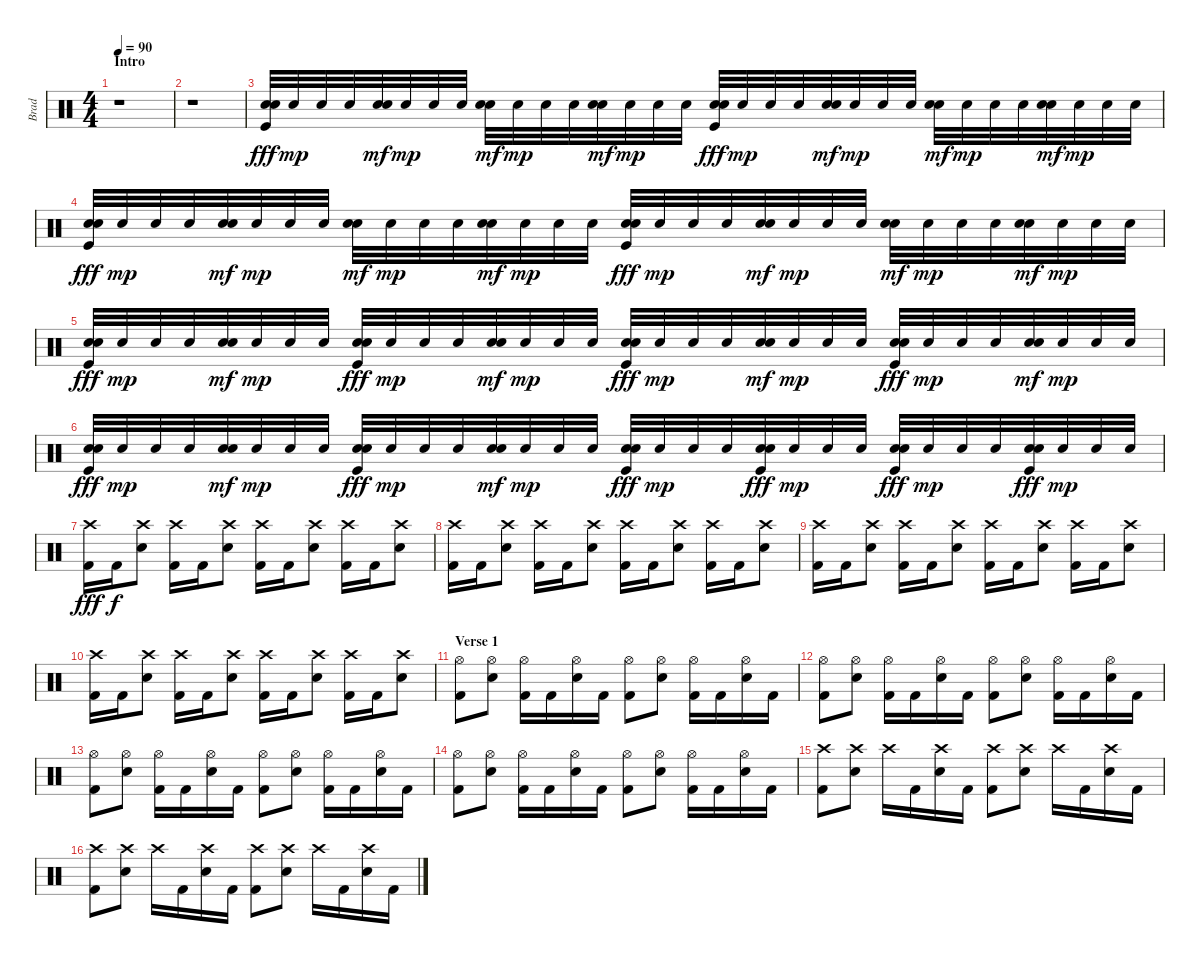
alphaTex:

\track ("Brad" "Brad") {instrument percussion}
\staff {score}
\articulation defaults
\ts (4 4)
\section ("" "Intro")
\tempo 90
\clef neutral
\ks c
r.1{dy fff} |
r.1 |
("Electric Snare (hit)" "Electric Snare (hit)" "Kick (hit)").32 "Electric Snare (hit)".32{dy mp} "Electric Snare (hit)".32 "Electric Snare (hit)".32 ("Electric Snare (hit)" "Electric Snare (hit)").32{dy mf} "Electric Snare (hit)".32{dy mp} "Electric Snare (hit)".32 "Electric Snare (hit)".32 ("Electric Snare (hit)" "Electric Snare (hit)").32{dy mf} "Electric Snare (hit)".32{dy mp} "Electric Snare (hit)".32 "Electric Snare (hit)".32 ("Electric Snare (hit)" "Electric Snare (hit)").32{dy mf} "Electric Snare (hit)".32{dy mp} "Electric Snare (hit)".32 "Electric Snare (hit)".32 ("Electric Snare (hit)" "Electric Snare (hit)" "Kick (hit)").32{dy fff} "Electric Snare (hit)".32{dy mp} "Electric Snare (hit)".32 "Electric Snare (hit)".32 ("Electric Snare (hit)" "Electric Snare (hit)").32{dy mf} "Electric Snare (hit)".32{dy mp} "Electric Snare (hit)".32 "Electric Snare (hit)".32 ("Electric Snare (hit)" "Electric Snare (hit)").32{dy mf} "Electric Snare (hit)".32{dy mp} "Electric Snare (hit)".32 "Electric Snare (hit)".32 ("Electric Snare (hit)" "Electric Snare (hit)").32{dy mf} "Electric Snare (hit)".32{dy mp} "Electric Snare (hit)".32 "Electric Snare (hit)".32 |
("Electric Snare (hit)" "Electric Snare (hit)" "Kick (hit)").32{dy fff} "Electric Snare (hit)".32{dy mp} "Electric Snare (hit)".32 "Electric Snare (hit)".32 ("Electric Snare (hit)" "Electric Snare (hit)").32{dy mf} "Electric Snare (hit)".32{dy mp} "Electric Snare (hit)".32 "Electric Snare (hit)".32 ("Electric Snare (hit)" "Electric Snare (hit)").32{dy mf} "Electric Snare (hit)".32{dy mp} "Electric Snare (hit)".32 "Electric Snare (hit)".32 ("Electric Snare (hit)" "Electric Snare (hit)").32{dy mf} "Electric Snare (hit)".32{dy mp} "Electric Snare (hit)".32 "Electric Snare (hit)".32 ("Electric Snare (hit)" "Electric Snare (hit)" "Kick (hit)").32{dy fff} "Electric Snare (hit)".32{dy mp} "Electric Snare (hit)".32 "Electric Snare (hit)".32 ("Electric Snare (hit)" "Electric Snare (hit)").32{dy mf} "Electric Snare (hit)".32{dy mp} "Electric Snare (hit)".32 "Electric Snare (hit)".32 ("Electric Snare (hit)" "Electric Snare (hit)").32{dy mf} "Electric Snare (hit)".32{dy mp} "Electric Snare (hit)".32 "Electric Snare (hit)".32 ("Electric Snare (hit)" "Electric Snare (hit)").32{dy mf} "Electric Snare (hit)".32{dy mp} "Electric Snare (hit)".32 "Electric Snare (hit)".32 |
("Electric Snare (hit)" "Electric Snare (hit)" "Kick (hit)").32{dy fff} "Electric Snare (hit)".32{dy mp} "Electric Snare (hit)".32 "Electric Snare (hit)".32 ("Electric Snare (hit)" "Electric Snare (hit)").32{dy mf} "Electric Snare (hit)".32{dy mp} "Electric Snare (hit)".32 "Electric Snare (hit)".32 ("Electric Snare (hit)" "Electric Snare (hit)" "Kick (hit)").32{dy fff} "Electric Snare (hit)".32{dy mp} "Electric Snare (hit)".32 "Electric Snare (hit)".32 ("Electric Snare (hit)" "Electric Snare (hit)").32{dy mf} "Electric Snare (hit)".32{dy mp} "Electric Snare (hit)".32 "Electric Snare (hit)".32 ("Electric Snare (hit)" "Electric Snare (hit)" "Kick (hit)").32{dy fff} "Electric Snare (hit)".32{dy mp} "Electric Snare (hit)".32 "Electric Snare (hit)".32 ("Electric Snare (hit)" "Electric Snare (hit)").32{dy mf} "Electric Snare (hit)".32{dy mp} "Electric Snare (hit)".32 "Electric Snare (hit)".32 ("Electric Snare (hit)" "Electric Snare (hit)" "Kick (hit)").32{dy fff} "Electric Snare (hit)".32{dy mp} "Electric Snare (hit)".32 "Electric Snare (hit)".32 ("Electric Snare (hit)" "Electric Snare (hit)").32{dy mf} "Electric Snare (hit)".32{dy mp} "Electric Snare (hit)".32 "Electric Snare (hit)".32 |
("Electric Snare (hit)" "Electric Snare (hit)" "Kick (hit)").32{dy fff} "Electric Snare (hit)".32{dy mp} "Electric Snare (hit)".32 "Electric Snare (hit)".32 ("Electric Snare (hit)" "Electric Snare (hit)").32{dy mf} "Electric Snare (hit)".32{dy mp} "Electric Snare (hit)".32 "Electric Snare (hit)".32 ("Electric Snare (hit)" "Electric Snare (hit)" "Kick (hit)").32{dy fff} "Electric Snare (hit)".32{dy mp} "Electric Snare (hit)".32 "Electric Snare (hit)".32 ("Electric Snare (hit)" "Electric Snare (hit)").32{dy mf} "Electric Snare (hit)".32{dy mp} "Electric Snare (hit)".32 "Electric Snare (hit)".32 ("Electric Snare (hit)" "Electric Snare (hit)" "Kick (hit)").32{dy fff} "Electric Snare (hit)".32{dy mp} "Electric Snare (hit)".32 "Electric Snare (hit)".32 ("Electric Snare (hit)" "Electric Snare (hit)" "Kick (hit)").32{dy fff} "Electric Snare (hit)".32{dy mp} "Electric Snare (hit)".32 "Electric Snare (hit)".32 ("Electric Snare (hit)" "Electric Snare (hit)" "Kick (hit)").32{dy fff} "Electric Snare (hit)".32{dy mp} "Electric Snare (hit)".32 "Electric Snare (hit)".32 ("Electric Snare (hit)" "Electric Snare (hit)" "Kick (hit)").32{dy fff} "Electric Snare (hit)".32{dy mp} "Electric Snare (hit)".32 "Electric Snare (hit)".32 |
("Crash high (hit)" "Kick (hit) 2").16{dy fff} "Kick (hit) 2".16{dy f} ("Crash high (hit)" "Electric Snare (hit)").8 ("Crash high (hit)" "Kick (hit) 2").16 "Kick (hit) 2".16 ("Crash high (hit)" "Electric Snare (hit)").8 ("Crash high (hit)" "Kick (hit) 2").16 "Kick (hit) 2".16 ("Crash high (hit)" "Electric Snare (hit)").8 ("Crash high (hit)" "Kick (hit) 2").16 "Kick (hit) 2".16 ("Crash high (hit)" "Electric Snare (hit)").8 |
("Crash high (hit)" "Kick (hit) 2").16 "Kick (hit) 2".16 ("Crash high (hit)" "Electric Snare (hit)").8 ("Crash high (hit)" "Kick (hit) 2").16 "Kick (hit) 2".16 ("Crash high (hit)" "Electric Snare (hit)").8 ("Crash high (hit)" "Kick (hit) 2").16 "Kick (hit) 2".16 ("Crash high (hit)" "Electric Snare (hit)").8 ("Crash high (hit)" "Kick (hit) 2").16 "Kick (hit) 2".16 ("Crash high (hit)" "Electric Snare (hit)").8 |
("Crash high (hit)" "Kick (hit) 2").16 "Kick (hit) 2".16 ("Crash high (hit)" "Electric Snare (hit)").8 ("Crash high (hit)" "Kick (hit) 2").16 "Kick (hit) 2".16 ("Crash high (hit)" "Electric Snare (hit)").8 ("Crash high (hit)" "Kick (hit) 2").16 "Kick (hit) 2".16 ("Crash high (hit)" "Electric Snare (hit)").8 ("Crash high (hit)" "Kick (hit) 2").16 "Kick (hit) 2".16 ("Crash high (hit)" "Electric Snare (hit)").8 |
("Crash high (hit)" "Kick (hit) 2").16 "Kick (hit) 2".16 ("Crash high (hit)" "Electric Snare (hit)").8 ("Crash high (hit)" "Kick (hit) 2").16 "Kick (hit) 2".16 ("Crash high (hit)" "Electric Snare (hit)").8 ("Crash high (hit)" "Kick (hit) 2").16 "Kick (hit) 2".16 ("Crash high (hit)" "Electric Snare (hit)").8 ("Crash high (hit)" "Kick (hit) 2").16 "Kick (hit) 2".16 ("Crash high (hit)" "Electric Snare (hit)").8 |
\section ("" "Verse 1")
("Hi-Hat (open)" "Kick (hit) 2").8 ("Hi-Hat (open)" "Electric Snare (hit)").8 ("Hi-Hat (open)" "Kick (hit) 2").16 "Kick (hit) 2".16 ("Hi-Hat (open)" "Electric Snare (hit)").16 "Kick (hit) 2".16 ("Hi-Hat (open)" "Kick (hit) 2").8 ("Hi-Hat (open)" "Electric Snare (hit)").8 ("Hi-Hat (open)" "Kick (hit) 2").16 "Kick (hit) 2".16 ("Hi-Hat (open)" "Electric Snare (hit)").16 "Kick (hit) 2".16 |
("Hi-Hat (open)" "Kick (hit) 2").8 ("Hi-Hat (open)" "Electric Snare (hit)").8 ("Hi-Hat (open)" "Kick (hit) 2").16 "Kick (hit) 2".16 ("Hi-Hat (open)" "Electric Snare (hit)").16 "Kick (hit) 2".16 ("Hi-Hat (open)" "Kick (hit) 2").8 ("Hi-Hat (open)" "Electric Snare (hit)").8 ("Hi-Hat (open)" "Kick (hit) 2").16 "Kick (hit) 2".16 ("Hi-Hat (open)" "Electric Snare (hit)").16 "Kick (hit) 2".16 |
("Hi-Hat (open)" "Kick (hit) 2").8 ("Hi-Hat (open)" "Electric Snare (hit)").8 ("Hi-Hat (open)" "Kick (hit) 2").16 "Kick (hit) 2".16 ("Hi-Hat (open)" "Electric Snare (hit)").16 "Kick (hit) 2".16 ("Hi-Hat (open)" "Kick (hit) 2").8 ("Hi-Hat (open)" "Electric Snare (hit)").8 ("Hi-Hat (open)" "Kick (hit) 2").16 "Kick (hit) 2".16 ("Hi-Hat (open)" "Electric Snare (hit)").16 "Kick (hit) 2".16 |
("Hi-Hat (open)" "Kick (hit) 2").8 ("Hi-Hat (open)" "Electric Snare (hit)").8 ("Hi-Hat (open)" "Kick (hit) 2").16 "Kick (hit) 2".16 ("Hi-Hat (open)" "Electric Snare (hit)").16 "Kick (hit) 2".16 ("Hi-Hat (open)" "Kick (hit) 2").8 ("Hi-Hat (open)" "Electric Snare (hit)").8 ("Hi-Hat (open)" "Kick (hit) 2").16 "Kick (hit) 2".16 ("Hi-Hat (open)" "Electric Snare (hit)").16 "Kick (hit) 2".16 |
("Crash high (hit)" "Kick (hit) 2").8 ("Crash high (hit)" "Electric Snare (hit)").8 "Crash high (hit)".16 "Kick (hit) 2".16 ("Crash high (hit)" "Electric Snare (hit)").16 "Kick (hit) 2".16 ("Crash high (hit)" "Kick (hit) 2").8 ("Crash high (hit)" "Electric Snare (hit)").8 "Crash high (hit)".16 "Kick (hit) 2".16 ("Crash high (hit)" "Electric Snare (hit)").16 "Kick (hit) 2".16 |
("Crash high (hit)" "Kick (hit) 2").8 ("Crash high (hit)" "Electric Snare (hit)").8 "Crash high (hit)".16 "Kick (hit) 2".16 ("Crash high (hit)" "Electric Snare (hit)").16 "Kick (hit) 2".16 ("Crash high (hit)" "Kick (hit) 2").8 ("Crash high (hit)" "Electric Snare (hit)").8 "Crash high (hit)".16 "Kick (hit) 2".16 ("Crash high (hit)" "Electric Snare (hit)").16 "Kick (hit) 2".16
